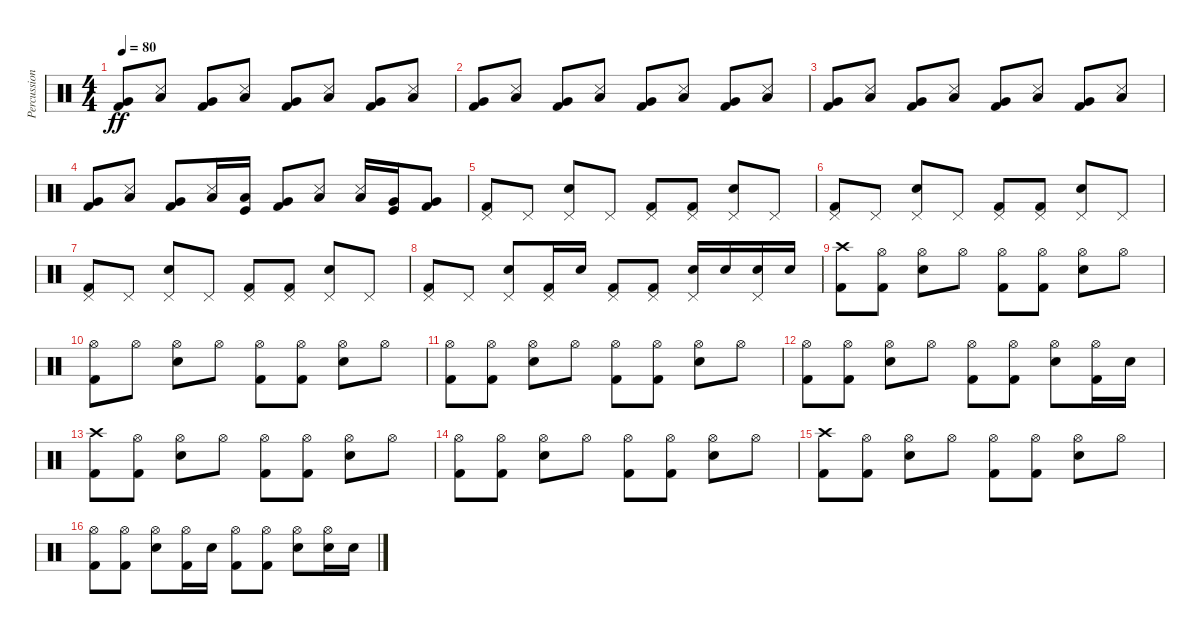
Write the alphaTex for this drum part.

\track ("Percussions" "Percussion") {instrument percussion}
\staff {score}
\articulation defaults
\ts (4 4)
\tempo 80
\clef neutral
\ks c
("Kick (hit) 2" "Very Low Tom (hit)").8{dy ff} ("Metronome (hit)" "Low Floor Tom (hit)").8 ("Kick (hit) 2" "Very Low Tom (hit)").8 ("Metronome (hit)" "Low Floor Tom (hit)").8 ("Kick (hit) 2" "Very Low Tom (hit)").8 ("Metronome (hit)" "Low Floor Tom (hit)").8 ("Kick (hit) 2" "Very Low Tom (hit)").8 ("Metronome (hit)" "Low Floor Tom (hit)").8 |
("Kick (hit) 2" "Very Low Tom (hit)").8 ("Metronome (hit)" "Low Floor Tom (hit)").8 ("Kick (hit) 2" "Very Low Tom (hit)").8 ("Metronome (hit)" "Low Floor Tom (hit)").8 ("Kick (hit) 2" "Very Low Tom (hit)").8 ("Metronome (hit)" "Low Floor Tom (hit)").8 ("Kick (hit) 2" "Very Low Tom (hit)").8 ("Metronome (hit)" "Low Floor Tom (hit)").8 |
("Kick (hit) 2" "Very Low Tom (hit)").8 ("Metronome (hit)" "Low Floor Tom (hit)").8 ("Kick (hit) 2" "Very Low Tom (hit)").8 ("Metronome (hit)" "Low Floor Tom (hit)").8 ("Kick (hit) 2" "Very Low Tom (hit)").8 ("Metronome (hit)" "Low Floor Tom (hit)").8 ("Kick (hit) 2" "Very Low Tom (hit)").8 ("Metronome (hit)" "Low Floor Tom (hit)").8 |
("Kick (hit) 2" "Very Low Tom (hit)").8 ("Metronome (hit)" "Low Floor Tom (hit)").8 ("Kick (hit) 2" "Very Low Tom (hit)").8 ("Metronome (hit)" "Low Floor Tom (hit)").16 ("Kick (hit)" "Low Tom (hit)").16 ("Kick (hit) 2" "Very Low Tom (hit)").8 ("Metronome (hit)" "Low Floor Tom (hit)").8 ("Metronome (hit)" "Low Floor Tom (hit)").16 ("Kick (hit)" "Very Low Tom (hit)").16 ("Kick (hit) 2" "Very Low Tom (hit)").8 |
("Kick (hit) 2" "Pedal Hi-Hat (hit)").8{volume 16} "Pedal Hi-Hat (hit)".8 ("Snare (hit) 2" "Pedal Hi-Hat (hit)").8 "Pedal Hi-Hat (hit)".8 ("Kick (hit) 2" "Pedal Hi-Hat (hit)").8 ("Kick (hit) 2" "Pedal Hi-Hat (hit)").8 ("Snare (hit) 2" "Pedal Hi-Hat (hit)").8 "Pedal Hi-Hat (hit)".8 |
("Kick (hit) 2" "Pedal Hi-Hat (hit)").8 "Pedal Hi-Hat (hit)".8 ("Snare (hit) 2" "Pedal Hi-Hat (hit)").8 "Pedal Hi-Hat (hit)".8 ("Kick (hit) 2" "Pedal Hi-Hat (hit)").8 ("Kick (hit) 2" "Pedal Hi-Hat (hit)").8 ("Snare (hit) 2" "Pedal Hi-Hat (hit)").8 "Pedal Hi-Hat (hit)".8 |
("Kick (hit) 2" "Pedal Hi-Hat (hit)").8 "Pedal Hi-Hat (hit)".8 ("Snare (hit) 2" "Pedal Hi-Hat (hit)").8 "Pedal Hi-Hat (hit)".8 ("Kick (hit) 2" "Pedal Hi-Hat (hit)").8 ("Kick (hit) 2" "Pedal Hi-Hat (hit)").8 ("Snare (hit) 2" "Pedal Hi-Hat (hit)").8 "Pedal Hi-Hat (hit)".8 |
("Kick (hit) 2" "Pedal Hi-Hat (hit)").8 "Pedal Hi-Hat (hit)".8 ("Snare (hit) 2" "Pedal Hi-Hat (hit)").8 ("Kick (hit) 2" "Pedal Hi-Hat (hit)").16 "Snare (hit) 2".16 ("Kick (hit) 2" "Pedal Hi-Hat (hit)").8 ("Kick (hit) 2" "Pedal Hi-Hat (hit)").8 ("Snare (hit) 2" "Pedal Hi-Hat (hit)").16 "Snare (hit) 2".16 ("Snare (hit) 2" "Pedal Hi-Hat (hit)").16 "Snare (hit) 2".16 |
("Kick (hit) 2" "Crash high (hit)").8 ("Kick (hit) 2" "Hi-Hat (open)").8 ("Snare (hit) 2" "Hi-Hat (open)").8 "Hi-Hat (open)".8 ("Kick (hit) 2" "Hi-Hat (open)").8 ("Kick (hit) 2" "Hi-Hat (open)").8 ("Snare (hit) 2" "Hi-Hat (open)").8 "Hi-Hat (open)".8 |
("Kick (hit) 2" "Hi-Hat (open)").8 "Hi-Hat (open)".8 ("Snare (hit) 2" "Hi-Hat (open)").8 "Hi-Hat (open)".8 ("Kick (hit) 2" "Hi-Hat (open)").8 ("Kick (hit) 2" "Hi-Hat (open)").8 ("Snare (hit) 2" "Hi-Hat (open)").8 "Hi-Hat (open)".8 |
("Kick (hit) 2" "Hi-Hat (open)").8 ("Kick (hit) 2" "Hi-Hat (open)").8 ("Snare (hit) 2" "Hi-Hat (open)").8 "Hi-Hat (open)".8 ("Kick (hit) 2" "Hi-Hat (open)").8 ("Kick (hit) 2" "Hi-Hat (open)").8 ("Snare (hit) 2" "Hi-Hat (open)").8 "Hi-Hat (open)".8 |
("Kick (hit) 2" "Hi-Hat (open)").8 ("Kick (hit) 2" "Hi-Hat (open)").8 ("Snare (hit) 2" "Hi-Hat (open)").8 "Hi-Hat (open)".8 ("Kick (hit) 2" "Hi-Hat (open)").8 ("Kick (hit) 2" "Hi-Hat (open)").8 ("Snare (hit) 2" "Hi-Hat (open)").8 ("Kick (hit) 2" "Hi-Hat (open)").16 "Snare (hit) 2".16 |
("Kick (hit) 2" "Crash high (hit)").8 ("Kick (hit) 2" "Hi-Hat (open)").8 ("Snare (hit) 2" "Hi-Hat (open)").8 "Hi-Hat (open)".8 ("Kick (hit) 2" "Hi-Hat (open)").8 ("Kick (hit) 2" "Hi-Hat (open)").8 ("Snare (hit) 2" "Hi-Hat (open)").8 "Hi-Hat (open)".8 |
("Kick (hit) 2" "Hi-Hat (open)").8 ("Kick (hit) 2" "Hi-Hat (open)").8 ("Snare (hit) 2" "Hi-Hat (open)").8 "Hi-Hat (open)".8 ("Kick (hit) 2" "Hi-Hat (open)").8 ("Kick (hit) 2" "Hi-Hat (open)").8 ("Snare (hit) 2" "Hi-Hat (open)").8 "Hi-Hat (open)".8 |
("Kick (hit) 2" "Crash high (hit)").8 ("Kick (hit) 2" "Hi-Hat (open)").8 ("Snare (hit) 2" "Hi-Hat (open)").8 "Hi-Hat (open)".8 ("Kick (hit) 2" "Hi-Hat (open)").8 ("Kick (hit) 2" "Hi-Hat (open)").8 ("Snare (hit) 2" "Hi-Hat (open)").8 "Hi-Hat (open)".8 |
("Kick (hit) 2" "Hi-Hat (open)").8 ("Kick (hit) 2" "Hi-Hat (open)").8 ("Snare (hit) 2" "Hi-Hat (open)").8 ("Kick (hit) 2" "Hi-Hat (open)").16 "Snare (hit) 2".16 ("Kick (hit) 2" "Hi-Hat (open)").8 ("Kick (hit) 2" "Hi-Hat (open)").8 ("Snare (hit) 2" "Hi-Hat (open)").8 ("Snare (hit) 2" "Hi-Hat (open)").16 "Snare (hit) 2".16
